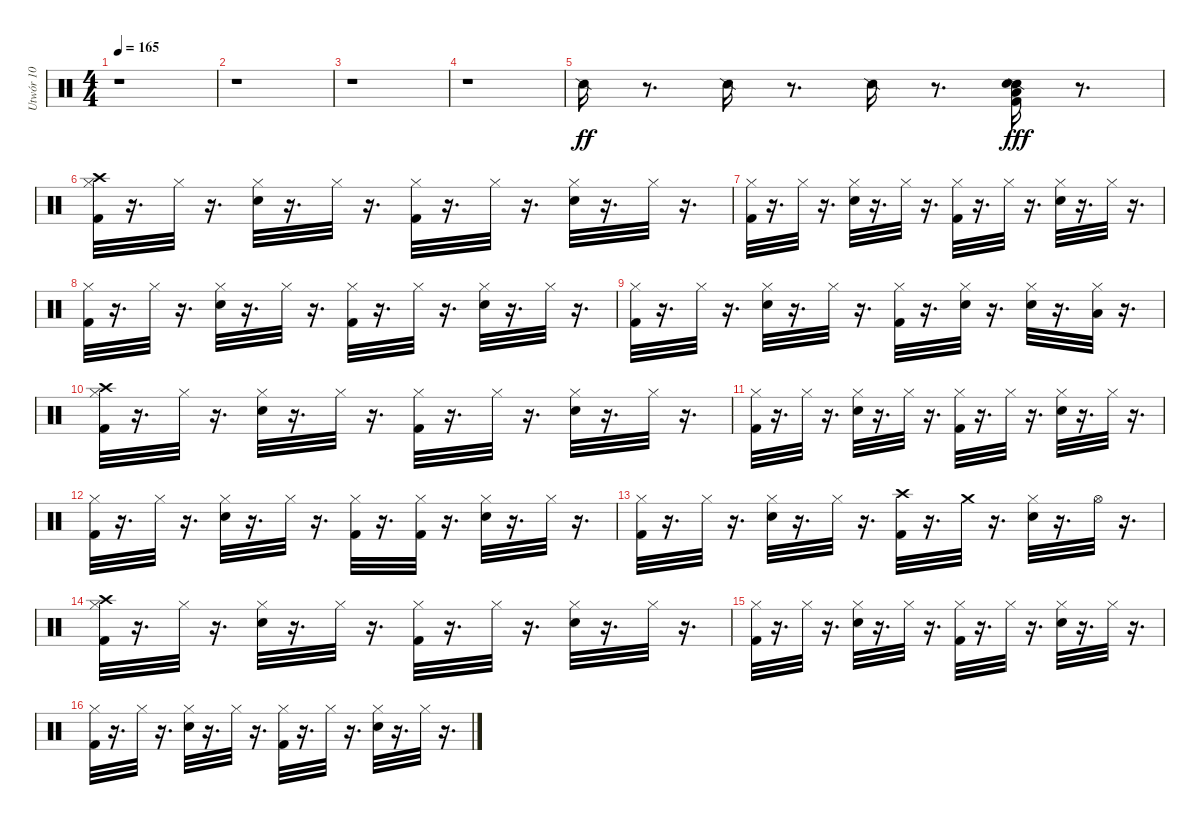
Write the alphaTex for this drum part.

\track ("Utwór 10" "Utwór 10") {instrument percussion}
\staff {score}
\articulation defaults
\ts (4 4)
\tempo 165
\clef neutral
\ks c
r.1{dy ff} |
r.1 |
r.1 |
r.1 |
"Snare (side stick) 2".16{volume 16 balance 8} r.8{d} "Snare (side stick) 2".16 r.8{d} "Snare (side stick) 2".16 r.8{d} ("Snare (side stick) 2" "Low Tom (hit)" "Kick (hit) 2" "Snare (hit) 2").16{dy fff} r.8{d} |
("Crash high (hit)" "Hi-Hat (closed)" "Kick (hit) 2").32 r.16{d} "Hi-Hat (closed)".32 r.16{d} ("Hi-Hat (closed)" "Electric Snare (hit)").32 r.16{d} "Hi-Hat (closed)".32 r.16{d} ("Hi-Hat (closed)" "Kick (hit) 2").32 r.16{d} "Hi-Hat (closed)".32 r.16{d} ("Hi-Hat (closed)" "Electric Snare (hit)").32 r.16{d} "Hi-Hat (closed)".32 r.16{d} |
("Hi-Hat (closed)" "Kick (hit) 2").32 r.16{d} "Hi-Hat (closed)".32 r.16{d} ("Hi-Hat (closed)" "Electric Snare (hit)").32 r.16{d} "Hi-Hat (closed)".32 r.16{d} ("Hi-Hat (closed)" "Kick (hit) 2").32 r.16{d} "Hi-Hat (closed)".32 r.16{d} ("Hi-Hat (closed)" "Electric Snare (hit)").32 r.16{d} "Hi-Hat (closed)".32 r.16{d} |
("Hi-Hat (closed)" "Kick (hit) 2").32 r.16{d} "Hi-Hat (closed)".32 r.16{d} ("Hi-Hat (closed)" "Electric Snare (hit)").32 r.16{d} "Hi-Hat (closed)".32 r.16{d} ("Hi-Hat (closed)" "Kick (hit) 2").32 r.16{d} "Hi-Hat (closed)".32 r.16{d} ("Hi-Hat (closed)" "Electric Snare (hit)").32 r.16{d} "Hi-Hat (closed)".32 r.16{d} |
("Hi-Hat (closed)" "Kick (hit) 2").32 r.16{d} "Hi-Hat (closed)".32 r.16{d} ("Hi-Hat (closed)" "Electric Snare (hit)").32 r.16{d} "Hi-Hat (closed)".32 r.16{d} ("Hi-Hat (closed)" "Kick (hit) 2").32 r.16{d} ("Electric Snare (hit)" "Hi-Hat (closed)").32 r.16{d} ("Hi-Hat (closed)" "Electric Snare (hit)").32 r.16{d} ("Low Tom (hit)" "Hi-Hat (closed)").32 r.16{d} |
("Kick (hit) 2" "Hi-Hat (closed)" "Crash high (hit)").32 r.16{d} "Hi-Hat (closed)".32 r.16{d} ("Hi-Hat (closed)" "Electric Snare (hit)").32 r.16{d} "Hi-Hat (closed)".32 r.16{d} ("Hi-Hat (closed)" "Kick (hit) 2").32 r.16{d} "Hi-Hat (closed)".32 r.16{d} ("Hi-Hat (closed)" "Electric Snare (hit)").32 r.16{d} "Hi-Hat (closed)".32 r.16{d} |
("Hi-Hat (closed)" "Kick (hit) 2").32 r.16{d} "Hi-Hat (closed)".32 r.16{d} ("Hi-Hat (closed)" "Electric Snare (hit)").32 r.16{d} "Hi-Hat (closed)".32 r.16{d} ("Hi-Hat (closed)" "Kick (hit) 2").32 r.16{d} "Hi-Hat (closed)".32 r.16{d} ("Hi-Hat (closed)" "Electric Snare (hit)").32 r.16{d} "Hi-Hat (closed)".32 r.16{d} |
("Hi-Hat (closed)" "Kick (hit) 2").32 r.16{d} "Hi-Hat (closed)".32 r.16{d} ("Hi-Hat (closed)" "Electric Snare (hit)").32 r.16{d} "Hi-Hat (closed)".32 r.16{d} ("Hi-Hat (closed)" "Kick (hit) 2").32 r.16{d} ("Hi-Hat (closed)" "Kick (hit) 2").32 r.16{d} ("Hi-Hat (closed)" "Electric Snare (hit)").32 r.16{d} "Hi-Hat (closed)".32 r.16{d} |
("Hi-Hat (closed)" "Kick (hit) 2").32 r.16{d} "Hi-Hat (closed)".32 r.16{d} ("Hi-Hat (closed)" "Electric Snare (hit)").32 r.16{d} "Hi-Hat (closed)".32 r.16{d} ("Crash high (hit)" "Kick (hit) 2").32 r.16{d} "Crash medium (hit)".32 r.16{d} ("Hi-Hat (closed)" "Electric Snare (hit)").32 r.16{d} "Hi-Hat (open)".32 r.16{d} |
("Crash high (hit)" "Hi-Hat (closed)" "Kick (hit) 2").32 r.16{d} "Hi-Hat (closed)".32 r.16{d} ("Hi-Hat (closed)" "Electric Snare (hit)").32 r.16{d} "Hi-Hat (closed)".32 r.16{d} ("Hi-Hat (closed)" "Kick (hit) 2").32 r.16{d} "Hi-Hat (closed)".32 r.16{d} ("Hi-Hat (closed)" "Electric Snare (hit)").32 r.16{d} "Hi-Hat (closed)".32 r.16{d} |
("Hi-Hat (closed)" "Kick (hit) 2").32 r.16{d} "Hi-Hat (closed)".32 r.16{d} ("Hi-Hat (closed)" "Electric Snare (hit)").32 r.16{d} "Hi-Hat (closed)".32 r.16{d} ("Hi-Hat (closed)" "Kick (hit) 2").32 r.16{d} "Hi-Hat (closed)".32 r.16{d} ("Hi-Hat (closed)" "Electric Snare (hit)").32 r.16{d} "Hi-Hat (closed)".32 r.16{d} |
("Hi-Hat (closed)" "Kick (hit) 2").32 r.16{d} "Hi-Hat (closed)".32 r.16{d} ("Hi-Hat (closed)" "Electric Snare (hit)").32 r.16{d} "Hi-Hat (closed)".32 r.16{d} ("Hi-Hat (closed)" "Kick (hit) 2").32 r.16{d} "Hi-Hat (closed)".32 r.16{d} ("Hi-Hat (closed)" "Electric Snare (hit)").32 r.16{d} "Hi-Hat (closed)".32 r.16{d}
